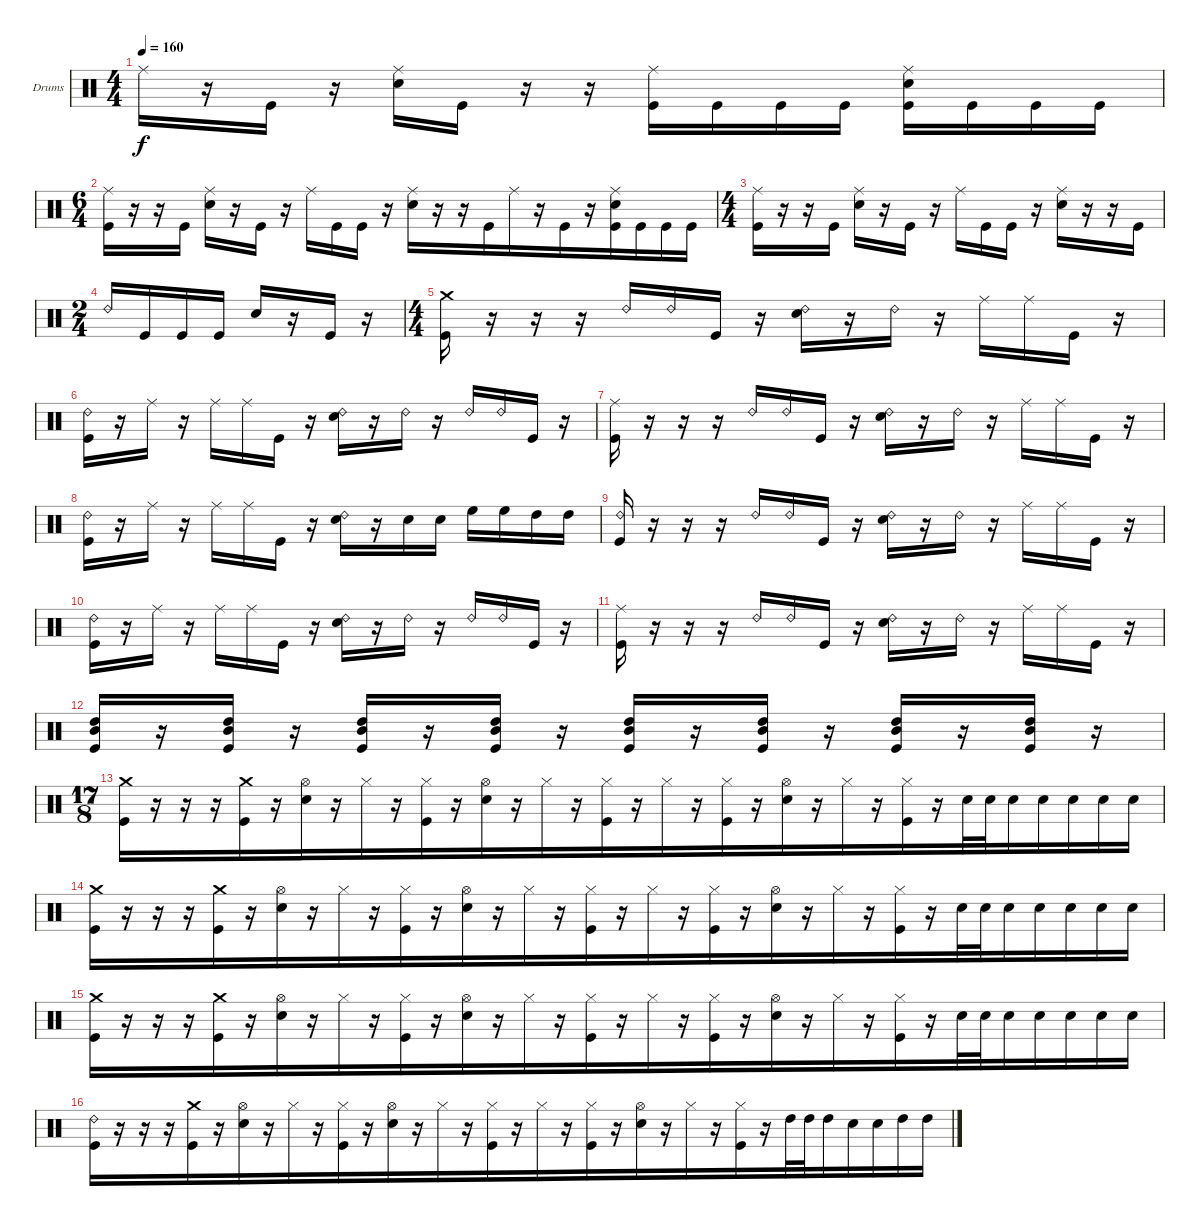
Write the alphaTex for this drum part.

\bracketExtendMode groupsimilarinstruments
\firstSystemTrackNameOrientation horizontal
\otherSystemsTrackNameOrientation horizontal
\track ("Drumkit" "Drums") {solo instrument percussion}
\staff {score}
\articulation defaults
\ts (4 4)
\tempo 160
\clef neutral
\ks c "Ride (middle)".16{dy f}
r.16 "Kick (hit)".16 r.16 ("Ride (middle)" "Snare (hit) 2").16 "Kick (hit)".16 r.16 r.16 ("Ride (middle)" "Kick (hit)").16 "Kick (hit)".16 "Kick (hit)".16 "Kick (hit)".16 ("Ride (middle)" "Snare (hit) 2" "Kick (hit)").16 "Kick (hit)".16 "Kick (hit)".16 "Kick (hit)".16 |
\ts (6 4)
\beaming (8 2 2 2 6)
("Ride (middle)" "Kick (hit)").16 r.16 r.16 "Kick (hit)".16 ("Ride (middle)" "Snare (hit) 2").16 r.16 "Kick (hit)".16 r.16 "Ride (middle)".16 "Kick (hit)".16 "Kick (hit)".16 r.16 ("Ride (middle)" "Snare (hit) 2").16 r.16 r.16 "Kick (hit)".16 "Ride (middle)".16 r.16 "Kick (hit)".16 r.16 ("Ride (middle)" "Snare (hit) 2" "Kick (hit)").16 "Kick (hit)".16 "Kick (hit)".16 "Kick (hit)".16 |
\ts (4 4)
\beaming (8 2 2 2 2)
("Ride (middle)" "Kick (hit)").16 r.16 r.16 "Kick (hit)".16 ("Ride (middle)" "Snare (hit) 2").16 r.16 "Kick (hit)".16 r.16 "Ride (middle)".16 "Kick (hit)".16 "Kick (hit)".16 r.16 ("Ride (middle)" "Snare (hit) 2").16 r.16 r.16 "Kick (hit)".16 |
\ts (2 4)
\beaming (8 2 2 2 2)
"Ride (bell) 2".16 "Kick (hit)".16 "Kick (hit)".16 "Kick (hit)".16 "Snare (hit) 2".16 r.16 "Kick (hit)".16 r.16 |
\ts (4 4)
\beaming (8 2 2 2 2)
("Crash medium (hit)" "Kick (hit)").16 r.16 r.16 r.16 "Ride (bell) 2".16 "Ride (bell) 2".16 "Kick (hit)".16 r.16 ("Ride (bell) 2" "Snare (hit) 2").16 r.16 "Ride (bell) 2".16 r.16 "Ride (middle)".16 "Ride (middle)".16 "Kick (hit)".16 r.16 |
("Ride (bell) 2" "Kick (hit)").16 r.16 "Ride (middle)".16 r.16 "Ride (middle)".16 "Ride (middle)".16 "Kick (hit)".16 r.16 ("Ride (bell) 2" "Snare (hit) 2").16 r.16 "Ride (bell) 2".16 r.16 "Ride (bell) 2".16 "Ride (bell) 2".16 "Kick (hit)".16 r.16 |
("Ride (middle)" "Kick (hit)").16 r.16 r.16 r.16 "Ride (bell) 2".16 "Ride (bell) 2".16 "Kick (hit)".16 r.16 ("Ride (bell) 2" "Snare (hit) 2").16 r.16 "Ride (bell) 2".16 r.16 "Ride (middle)".16 "Ride (middle)".16 "Kick (hit)".16 r.16 |
("Ride (bell) 2" "Kick (hit)").16 r.16 "Ride (middle)".16 r.16 "Ride (middle)".16 "Ride (middle)".16 "Kick (hit)".16 r.16 ("Ride (bell) 2" "Snare (hit) 2").16 r.16 "Snare (hit) 2".16 "Snare (hit) 2".16 "High Floor Tom (hit)".16 "High Floor Tom (hit)".16 "High Tom (hit)".16 "High Tom (hit)".16 |
("Ride (bell) 2" "Kick (hit)").16 r.16 r.16 r.16 "Ride (bell) 2".16 "Ride (bell) 2".16 "Kick (hit)".16 r.16 ("Ride (bell) 2" "Snare (hit) 2").16 r.16 "Ride (bell) 2".16 r.16 "Ride (middle)".16 "Ride (middle)".16 "Kick (hit)".16 r.16 |
("Ride (bell) 2" "Kick (hit)").16 r.16 "Ride (middle)".16 r.16 "Ride (middle)".16 "Ride (middle)".16 "Kick (hit)".16 r.16 ("Ride (bell) 2" "Snare (hit) 2").16 r.16 "Ride (bell) 2".16 r.16 "Ride (bell) 2".16 "Ride (bell) 2".16 "Kick (hit)".16 r.16 |
("Ride (middle)" "Kick (hit)").16 r.16 r.16 r.16 "Ride (bell) 2".16 "Ride (bell) 2".16 "Kick (hit)".16 r.16 ("Ride (bell) 2" "Snare (hit) 2").16 r.16 "Ride (bell) 2".16 r.16 "Ride (middle)".16 "Ride (middle)".16 "Kick (hit)".16 r.16 |
("High Tom (hit)" "Mid Tom (hit)" "Kick (hit)").16 r.16 ("High Tom (hit)" "Mid Tom (hit)" "Kick (hit)").16 r.16 ("High Tom (hit)" "Mid Tom (hit)" "Kick (hit)").16 r.16 ("High Tom (hit)" "Mid Tom (hit)" "Kick (hit)").16 r.16 ("High Tom (hit)" "Mid Tom (hit)" "Kick (hit)").16 r.16 ("High Tom (hit)" "Mid Tom (hit)" "Kick (hit)").16 r.16 ("High Tom (hit)" "Mid Tom (hit)" "Kick (hit)").16 r.16 ("High Tom (hit)" "Mid Tom (hit)" "Kick (hit)").16 r.16 |
\ts (17 8)
\beaming (8 17)
("Crash medium (hit)" "Kick (hit)").16 r.16 r.16 r.16 ("Crash medium (hit)" "Kick (hit)").16 r.16 ("Hi-Hat (open)" "Snare (hit) 2").16 r.16 "Hi-Hat (closed)".16 r.16 ("Hi-Hat (closed)" "Kick (hit)").16 r.16 ("Hi-Hat (open)" "Snare (hit) 2").16 r.16 "Hi-Hat (closed)".16 r.16 ("Hi-Hat (closed)" "Kick (hit)").16 r.16 "Hi-Hat (closed)".16 r.16 ("Hi-Hat (closed)" "Kick (hit)").16 r.16 ("Hi-Hat (open)" "Snare (hit) 2").16 r.16 "Hi-Hat (closed)".16 r.16 ("Hi-Hat (closed)" "Kick (hit)").16 r.16 "Snare (hit) 2".32 "Snare (hit) 2".32 "Snare (hit) 2".16 "Snare (hit) 2".16 "Snare (hit) 2".16 "Snare (hit) 2".16 "Snare (hit) 2".16 |
("Crash medium (hit)" "Kick (hit)").16 r.16 r.16 r.16 ("Crash medium (hit)" "Kick (hit)").16 r.16 ("Hi-Hat (open)" "Snare (hit) 2").16 r.16 "Hi-Hat (closed)".16 r.16 ("Hi-Hat (closed)" "Kick (hit)").16 r.16 ("Hi-Hat (open)" "Snare (hit) 2").16 r.16 "Hi-Hat (closed)".16 r.16 ("Hi-Hat (closed)" "Kick (hit)").16 r.16 "Hi-Hat (closed)".16 r.16 ("Hi-Hat (closed)" "Kick (hit)").16 r.16 ("Hi-Hat (open)" "Snare (hit) 2").16 r.16 "Hi-Hat (closed)".16 r.16 ("Hi-Hat (closed)" "Kick (hit)").16 r.16 "Snare (hit) 2".32 "Snare (hit) 2".32 "Snare (hit) 2".16 "Snare (hit) 2".16 "Snare (hit) 2".16 "Snare (hit) 2".16 "Snare (hit) 2".16 |
("Crash medium (hit)" "Kick (hit)").16 r.16 r.16 r.16 ("Crash medium (hit)" "Kick (hit)").16 r.16 ("Hi-Hat (open)" "Snare (hit) 2").16 r.16 "Hi-Hat (closed)".16 r.16 ("Hi-Hat (closed)" "Kick (hit)").16 r.16 ("Hi-Hat (open)" "Snare (hit) 2").16 r.16 "Hi-Hat (closed)".16 r.16 ("Hi-Hat (closed)" "Kick (hit)").16 r.16 "Hi-Hat (closed)".16 r.16 ("Hi-Hat (closed)" "Kick (hit)").16 r.16 ("Hi-Hat (open)" "Snare (hit) 2").16 r.16 "Hi-Hat (closed)".16 r.16 ("Hi-Hat (closed)" "Kick (hit)").16 r.16 "Snare (hit) 2".32 "Snare (hit) 2".32 "Snare (hit) 2".16 "Snare (hit) 2".16 "Snare (hit) 2".16 "Snare (hit) 2".16 "Snare (hit) 2".16 |
("Ride (bell) 2" "Kick (hit)").16 r.16 r.16 r.16 ("Crash medium (hit)" "Kick (hit)").16 r.16 ("Hi-Hat (open)" "Snare (hit) 2").16 r.16 "Hi-Hat (closed)".16 r.16 ("Hi-Hat (closed)" "Kick (hit)").16 r.16 ("Hi-Hat (open)" "Snare (hit) 2").16 r.16 "Hi-Hat (closed)".16 r.16 ("Hi-Hat (closed)" "Kick (hit)").16 r.16 "Hi-Hat (closed)".16 r.16 ("Hi-Hat (closed)" "Kick (hit)").16 r.16 ("Hi-Hat (open)" "Snare (hit) 2").16 r.16 "Hi-Hat (closed)".16 r.16 ("Hi-Hat (closed)" "Kick (hit)").16 r.16 "High Tom (hit)".32 "High Tom (hit)".32 "High Tom (hit)".16 "Snare (hit) 2".16 "Snare (hit) 2".16 "High Tom (hit)".16 "High Tom (hit)".16
